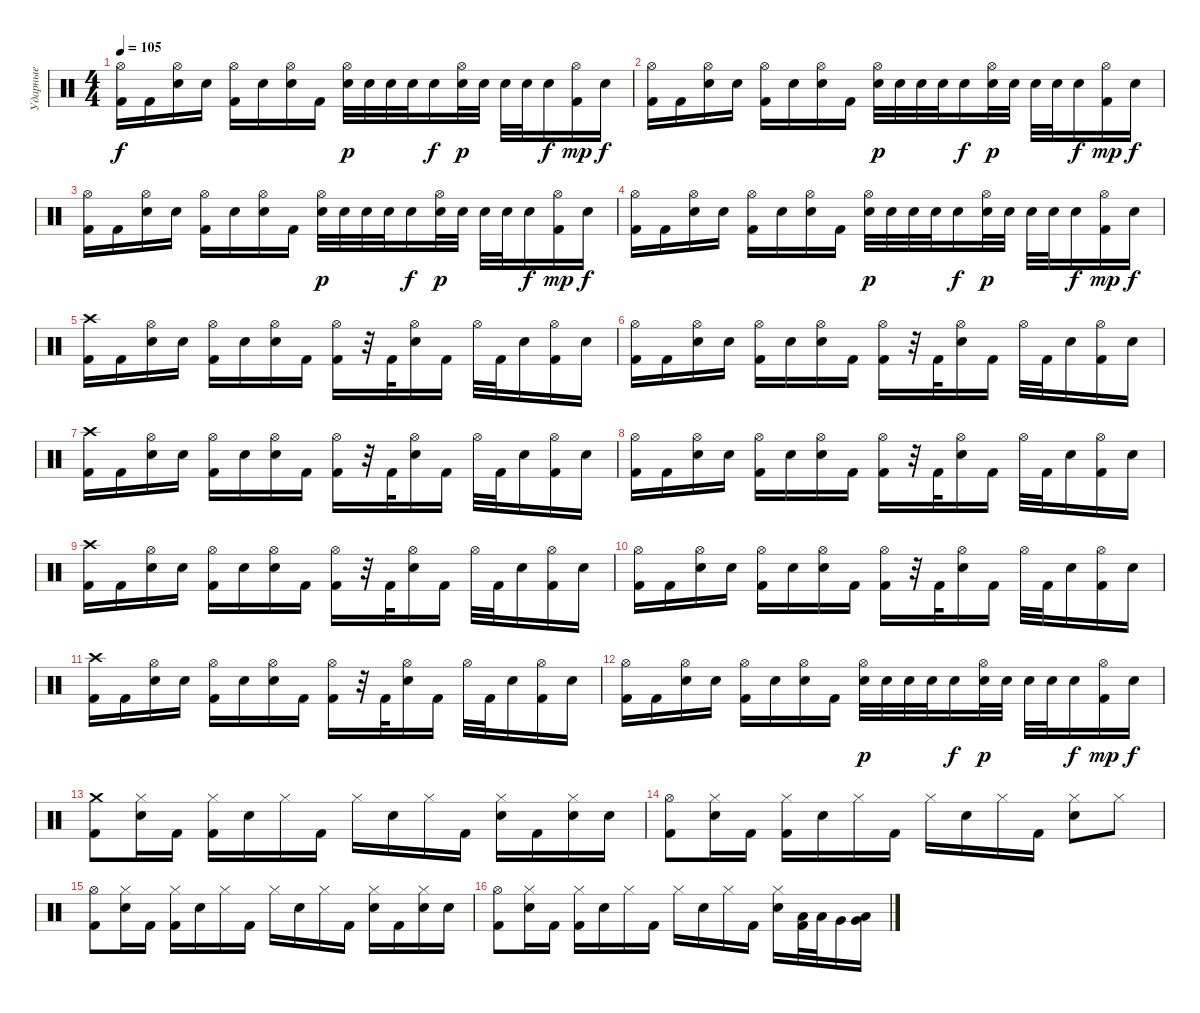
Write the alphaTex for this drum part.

\track ("Ударные" "Ударные") {instrument percussion}
\staff {score}
\articulation defaults
\ts (4 4)
\tempo 105
\clef neutral
\ks c
("Hi-Hat (open)" "Kick (hit) 2").16{dy f} "Kick (hit) 2".16 ("Hi-Hat (open)" "Electric Snare (hit)").16 "Electric Snare (hit)".16 ("Hi-Hat (open)" "Kick (hit) 2").16 "Electric Snare (hit)".16 ("Hi-Hat (open)" "Electric Snare (hit)").16 "Kick (hit) 2".16 ("Hi-Hat (open)" "Electric Snare (hit)").32{dy p} "Electric Snare (hit)".32 "Electric Snare (hit)".32 "Electric Snare (hit)".32 "Electric Snare (hit)".16{dy f} ("Hi-Hat (open)" "Electric Snare (hit)").32{dy p} "Electric Snare (hit)".32 "Electric Snare (hit)".32 "Electric Snare (hit)".32 "Electric Snare (hit)".16{dy f} ("Hi-Hat (open)" "Kick (hit) 2").16{dy mp} "Electric Snare (hit)".16{dy f} |
("Hi-Hat (open)" "Kick (hit) 2").16 "Kick (hit) 2".16 ("Hi-Hat (open)" "Electric Snare (hit)").16 "Electric Snare (hit)".16 ("Hi-Hat (open)" "Kick (hit) 2").16 "Electric Snare (hit)".16 ("Hi-Hat (open)" "Electric Snare (hit)").16 "Kick (hit) 2".16 ("Hi-Hat (open)" "Electric Snare (hit)").32{dy p} "Electric Snare (hit)".32 "Electric Snare (hit)".32 "Electric Snare (hit)".32 "Electric Snare (hit)".16{dy f} ("Hi-Hat (open)" "Electric Snare (hit)").32{dy p} "Electric Snare (hit)".32 "Electric Snare (hit)".32 "Electric Snare (hit)".32 "Electric Snare (hit)".16{dy f} ("Hi-Hat (open)" "Kick (hit) 2").16{dy mp} "Electric Snare (hit)".16{dy f} |
("Hi-Hat (open)" "Kick (hit) 2").16 "Kick (hit) 2".16 ("Hi-Hat (open)" "Electric Snare (hit)").16 "Electric Snare (hit)".16 ("Hi-Hat (open)" "Kick (hit) 2").16 "Electric Snare (hit)".16 ("Hi-Hat (open)" "Electric Snare (hit)").16 "Kick (hit) 2".16 ("Hi-Hat (open)" "Electric Snare (hit)").32{dy p} "Electric Snare (hit)".32 "Electric Snare (hit)".32 "Electric Snare (hit)".32 "Electric Snare (hit)".16{dy f} ("Hi-Hat (open)" "Electric Snare (hit)").32{dy p} "Electric Snare (hit)".32 "Electric Snare (hit)".32 "Electric Snare (hit)".32 "Electric Snare (hit)".16{dy f} ("Hi-Hat (open)" "Kick (hit) 2").16{dy mp} "Electric Snare (hit)".16{dy f} |
("Hi-Hat (open)" "Kick (hit) 2").16 "Kick (hit) 2".16 ("Hi-Hat (open)" "Electric Snare (hit)").16 "Electric Snare (hit)".16 ("Hi-Hat (open)" "Kick (hit) 2").16 "Electric Snare (hit)".16 ("Hi-Hat (open)" "Electric Snare (hit)").16 "Kick (hit) 2".16 ("Hi-Hat (open)" "Electric Snare (hit)").32{dy p} "Electric Snare (hit)".32 "Electric Snare (hit)".32 "Electric Snare (hit)".32 "Electric Snare (hit)".16{dy f} ("Hi-Hat (open)" "Electric Snare (hit)").32{dy p} "Electric Snare (hit)".32 "Electric Snare (hit)".32 "Electric Snare (hit)".32 "Electric Snare (hit)".16{dy f} ("Hi-Hat (open)" "Kick (hit) 2").16{dy mp} "Electric Snare (hit)".16{dy f} |
("Crash high (hit)" "Kick (hit) 2").16 "Kick (hit) 2".16 ("Hi-Hat (open)" "Electric Snare (hit)").16 "Electric Snare (hit)".16 ("Hi-Hat (open)" "Kick (hit) 2").16 "Electric Snare (hit)".16 ("Hi-Hat (open)" "Electric Snare (hit)").16 "Kick (hit) 2".16 ("Hi-Hat (open)" "Kick (hit) 2").16 r.32 "Kick (hit) 2".32 ("Hi-Hat (open)" "Electric Snare (hit)").16 "Kick (hit) 2".16 "Hi-Hat (open)".32 "Kick (hit) 2".32 "Electric Snare (hit)".16 ("Hi-Hat (open)" "Kick (hit) 2").16 "Electric Snare (hit)".16 |
("Hi-Hat (open)" "Kick (hit) 2").16 "Kick (hit) 2".16 ("Hi-Hat (open)" "Electric Snare (hit)").16 "Electric Snare (hit)".16 ("Hi-Hat (open)" "Kick (hit) 2").16 "Electric Snare (hit)".16 ("Hi-Hat (open)" "Electric Snare (hit)").16 "Kick (hit) 2".16 ("Hi-Hat (open)" "Kick (hit) 2").16 r.32 "Kick (hit) 2".32 ("Hi-Hat (open)" "Electric Snare (hit)").16 "Kick (hit) 2".16 "Hi-Hat (open)".32 "Kick (hit) 2".32 "Electric Snare (hit)".16 ("Hi-Hat (open)" "Kick (hit) 2").16 "Electric Snare (hit)".16 |
("Crash high (hit)" "Kick (hit) 2").16 "Kick (hit) 2".16 ("Hi-Hat (open)" "Electric Snare (hit)").16 "Electric Snare (hit)".16 ("Hi-Hat (open)" "Kick (hit) 2").16 "Electric Snare (hit)".16 ("Hi-Hat (open)" "Electric Snare (hit)").16 "Kick (hit) 2".16 ("Hi-Hat (open)" "Kick (hit) 2").16 r.32 "Kick (hit) 2".32 ("Hi-Hat (open)" "Electric Snare (hit)").16 "Kick (hit) 2".16 "Hi-Hat (open)".32 "Kick (hit) 2".32 "Electric Snare (hit)".16 ("Hi-Hat (open)" "Kick (hit) 2").16 "Electric Snare (hit)".16 |
("Hi-Hat (open)" "Kick (hit) 2").16 "Kick (hit) 2".16 ("Hi-Hat (open)" "Electric Snare (hit)").16 "Electric Snare (hit)".16 ("Hi-Hat (open)" "Kick (hit) 2").16 "Electric Snare (hit)".16 ("Hi-Hat (open)" "Electric Snare (hit)").16 "Kick (hit) 2".16 ("Hi-Hat (open)" "Kick (hit) 2").16 r.32 "Kick (hit) 2".32 ("Hi-Hat (open)" "Electric Snare (hit)").16 "Kick (hit) 2".16 "Hi-Hat (open)".32 "Kick (hit) 2".32 "Electric Snare (hit)".16 ("Hi-Hat (open)" "Kick (hit) 2").16 "Electric Snare (hit)".16 |
("Crash high (hit)" "Kick (hit) 2").16 "Kick (hit) 2".16 ("Hi-Hat (open)" "Electric Snare (hit)").16 "Electric Snare (hit)".16 ("Hi-Hat (open)" "Kick (hit) 2").16 "Electric Snare (hit)".16 ("Hi-Hat (open)" "Electric Snare (hit)").16 "Kick (hit) 2".16 ("Hi-Hat (open)" "Kick (hit) 2").16 r.32 "Kick (hit) 2".32 ("Hi-Hat (open)" "Electric Snare (hit)").16 "Kick (hit) 2".16 "Hi-Hat (open)".32 "Kick (hit) 2".32 "Electric Snare (hit)".16 ("Hi-Hat (open)" "Kick (hit) 2").16 "Electric Snare (hit)".16 |
("Hi-Hat (open)" "Kick (hit) 2").16 "Kick (hit) 2".16 ("Hi-Hat (open)" "Electric Snare (hit)").16 "Electric Snare (hit)".16 ("Hi-Hat (open)" "Kick (hit) 2").16 "Electric Snare (hit)".16 ("Hi-Hat (open)" "Electric Snare (hit)").16 "Kick (hit) 2".16 ("Hi-Hat (open)" "Kick (hit) 2").16 r.32 "Kick (hit) 2".32 ("Hi-Hat (open)" "Electric Snare (hit)").16 "Kick (hit) 2".16 "Hi-Hat (open)".32 "Kick (hit) 2".32 "Electric Snare (hit)".16 ("Hi-Hat (open)" "Kick (hit) 2").16 "Electric Snare (hit)".16 |
("Crash high (hit)" "Kick (hit) 2").16 "Kick (hit) 2".16 ("Hi-Hat (open)" "Electric Snare (hit)").16 "Electric Snare (hit)".16 ("Hi-Hat (open)" "Kick (hit) 2").16 "Electric Snare (hit)".16 ("Hi-Hat (open)" "Electric Snare (hit)").16 "Kick (hit) 2".16 ("Hi-Hat (open)" "Kick (hit) 2").16 r.32 "Kick (hit) 2".32 ("Hi-Hat (open)" "Electric Snare (hit)").16 "Kick (hit) 2".16 "Hi-Hat (open)".32 "Kick (hit) 2".32 "Electric Snare (hit)".16 ("Hi-Hat (open)" "Kick (hit) 2").16 "Electric Snare (hit)".16 |
("Hi-Hat (open)" "Kick (hit) 2").16 "Kick (hit) 2".16 ("Hi-Hat (open)" "Electric Snare (hit)").16 "Electric Snare (hit)".16 ("Hi-Hat (open)" "Kick (hit) 2").16 "Electric Snare (hit)".16 ("Hi-Hat (open)" "Electric Snare (hit)").16 "Kick (hit) 2".16 ("Hi-Hat (open)" "Electric Snare (hit)").32{dy p} "Electric Snare (hit)".32 "Electric Snare (hit)".32 "Electric Snare (hit)".32 "Electric Snare (hit)".16{dy f} ("Hi-Hat (open)" "Electric Snare (hit)").32{dy p} "Electric Snare (hit)".32 "Electric Snare (hit)".32 "Electric Snare (hit)".32 "Electric Snare (hit)".16{dy f} ("Hi-Hat (open)" "Kick (hit) 2").16{dy mp} "Electric Snare (hit)".16{dy f} |
("Crash medium (hit)" "Kick (hit) 2").8 ("Hi-Hat (closed)" "Electric Snare (hit)").16 "Kick (hit) 2".16 ("Hi-Hat (closed)" "Kick (hit) 2").16 "Electric Snare (hit)".16 "Hi-Hat (closed)".16 "Kick (hit) 2".16 "Hi-Hat (closed)".16 "Electric Snare (hit)".16 "Hi-Hat (closed)".16 "Kick (hit) 2".16 ("Hi-Hat (closed)" "Electric Snare (hit)").16 "Kick (hit) 2".16 ("Hi-Hat (closed)" "Electric Snare (hit)").16 "Electric Snare (hit)".16 |
("Hi-Hat (open)" "Kick (hit) 2").8 ("Hi-Hat (closed)" "Electric Snare (hit)").16 "Kick (hit) 2".16 ("Hi-Hat (closed)" "Kick (hit) 2").16 "Electric Snare (hit)".16 "Hi-Hat (closed)".16 "Kick (hit) 2".16 "Hi-Hat (closed)".16 "Electric Snare (hit)".16 "Hi-Hat (closed)".16 "Kick (hit) 2".16 ("Hi-Hat (closed)" "Electric Snare (hit)").8 "Hi-Hat (closed)".8 |
("Hi-Hat (open)" "Kick (hit) 2").8 ("Hi-Hat (closed)" "Electric Snare (hit)").16 "Kick (hit) 2".16 ("Hi-Hat (closed)" "Kick (hit) 2").16 "Electric Snare (hit)".16 "Hi-Hat (closed)".16 "Kick (hit) 2".16 "Hi-Hat (closed)".16 "Electric Snare (hit)".16 "Hi-Hat (closed)".16 "Kick (hit) 2".16 ("Hi-Hat (closed)" "Electric Snare (hit)").16 "Kick (hit) 2".16 ("Hi-Hat (closed)" "Electric Snare (hit)").16 "Electric Snare (hit)".16 |
("Hi-Hat (open)" "Kick (hit) 2").8 ("Hi-Hat (closed)" "Electric Snare (hit)").16 "Kick (hit) 2".16 ("Hi-Hat (closed)" "Kick (hit) 2").16 "Electric Snare (hit)".16 "Hi-Hat (closed)".16 "Kick (hit) 2".16 "Hi-Hat (closed)".16 "Electric Snare (hit)".16 "Hi-Hat (closed)".16 "Kick (hit) 2".16 ("Hi-Hat (closed)" "Electric Snare (hit)").16 ("Low Tom (hit)" "Kick (hit) 2").32 "Low Tom (hit)".32 "Very Low Tom (hit)".16 ("Very Low Tom (hit)" "Low Floor Tom (hit)").16
